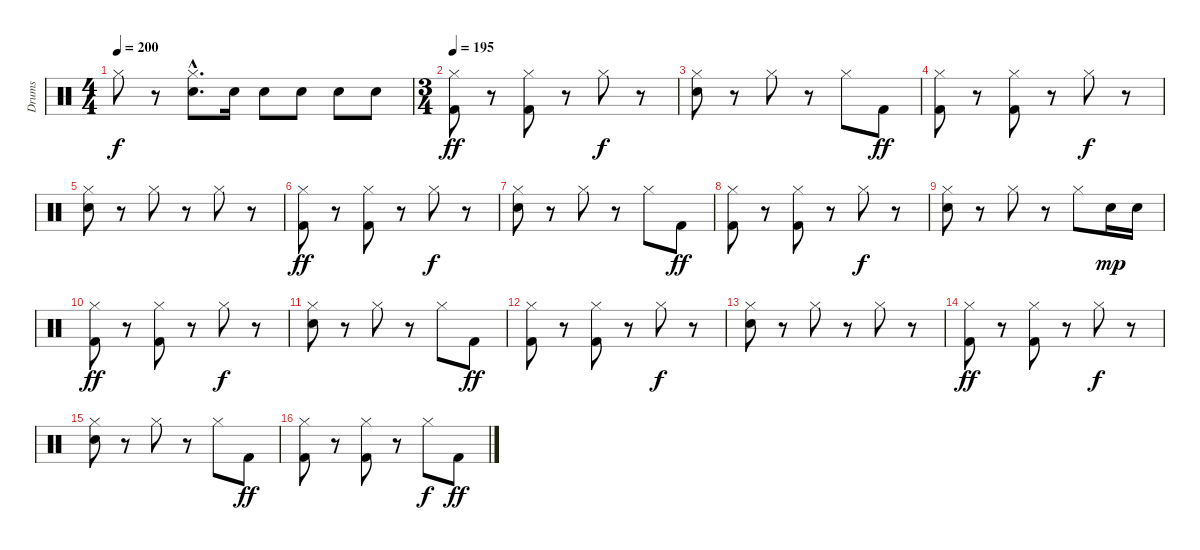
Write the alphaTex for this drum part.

\track ("Drums" "Drums") {instrument percussion}
\staff {score}
\articulation defaults
\ts (4 4)
\tempo 200
\clef neutral
\ks c "Hi-Hat (closed)".8{dy f}
r.8 ("Hi-Hat (closed)"{hac} "Electric Snare (hit)"{hac}).8{d} "Electric Snare (hit)".16 "Electric Snare (hit)".8 "Electric Snare (hit)".8 "Electric Snare (hit)".8 "Electric Snare (hit)".8 |
\ts (3 4)
\tempo 195
("Hi-Hat (closed)" "Kick (hit) 2").8{dy ff} r.8 ("Hi-Hat (closed)" "Kick (hit) 2").8 r.8 "Hi-Hat (closed)".8{dy f} r.8 |
("Hi-Hat (closed)" "Electric Snare (hit)").8 r.8 "Hi-Hat (closed)".8 r.8 "Hi-Hat (closed)".8 "Kick (hit) 2".8{dy ff} |
("Hi-Hat (closed)" "Kick (hit) 2").8 r.8 ("Hi-Hat (closed)" "Kick (hit) 2").8 r.8 "Hi-Hat (closed)".8{dy f} r.8 |
("Hi-Hat (closed)" "Electric Snare (hit)").8 r.8 "Hi-Hat (closed)".8 r.8 "Hi-Hat (closed)".8 r.8 |
("Hi-Hat (closed)" "Kick (hit) 2").8{dy ff} r.8 ("Hi-Hat (closed)" "Kick (hit) 2").8 r.8 "Hi-Hat (closed)".8{dy f} r.8 |
("Hi-Hat (closed)" "Electric Snare (hit)").8 r.8 "Hi-Hat (closed)".8 r.8 "Hi-Hat (closed)".8 "Kick (hit) 2".8{dy ff} |
("Hi-Hat (closed)" "Kick (hit) 2").8 r.8 ("Hi-Hat (closed)" "Kick (hit) 2").8 r.8 "Hi-Hat (closed)".8{dy f} r.8 |
("Hi-Hat (closed)" "Electric Snare (hit)").8 r.8 "Hi-Hat (closed)".8 r.8 "Hi-Hat (closed)".8 "Electric Snare (hit)".16{dy mp} "Electric Snare (hit)".16 |
("Hi-Hat (closed)" "Kick (hit) 2").8{dy ff} r.8 ("Hi-Hat (closed)" "Kick (hit) 2").8 r.8 "Hi-Hat (closed)".8{dy f} r.8 |
("Hi-Hat (closed)" "Electric Snare (hit)").8 r.8 "Hi-Hat (closed)".8 r.8 "Hi-Hat (closed)".8 "Kick (hit) 2".8{dy ff} |
("Hi-Hat (closed)" "Kick (hit) 2").8 r.8 ("Hi-Hat (closed)" "Kick (hit) 2").8 r.8 "Hi-Hat (closed)".8{dy f} r.8 |
("Hi-Hat (closed)" "Electric Snare (hit)").8 r.8 "Hi-Hat (closed)".8 r.8 "Hi-Hat (closed)".8 r.8 |
("Hi-Hat (closed)" "Kick (hit) 2").8{dy ff} r.8 ("Hi-Hat (closed)" "Kick (hit) 2").8 r.8 "Hi-Hat (closed)".8{dy f} r.8 |
("Hi-Hat (closed)" "Electric Snare (hit)").8 r.8 "Hi-Hat (closed)".8 r.8 "Hi-Hat (closed)".8 "Kick (hit) 2".8{dy ff} |
("Hi-Hat (closed)" "Kick (hit) 2").8 r.8 ("Hi-Hat (closed)" "Kick (hit) 2").8 r.8 "Hi-Hat (closed)".8{dy f} "Kick (hit) 2".8{dy ff}
